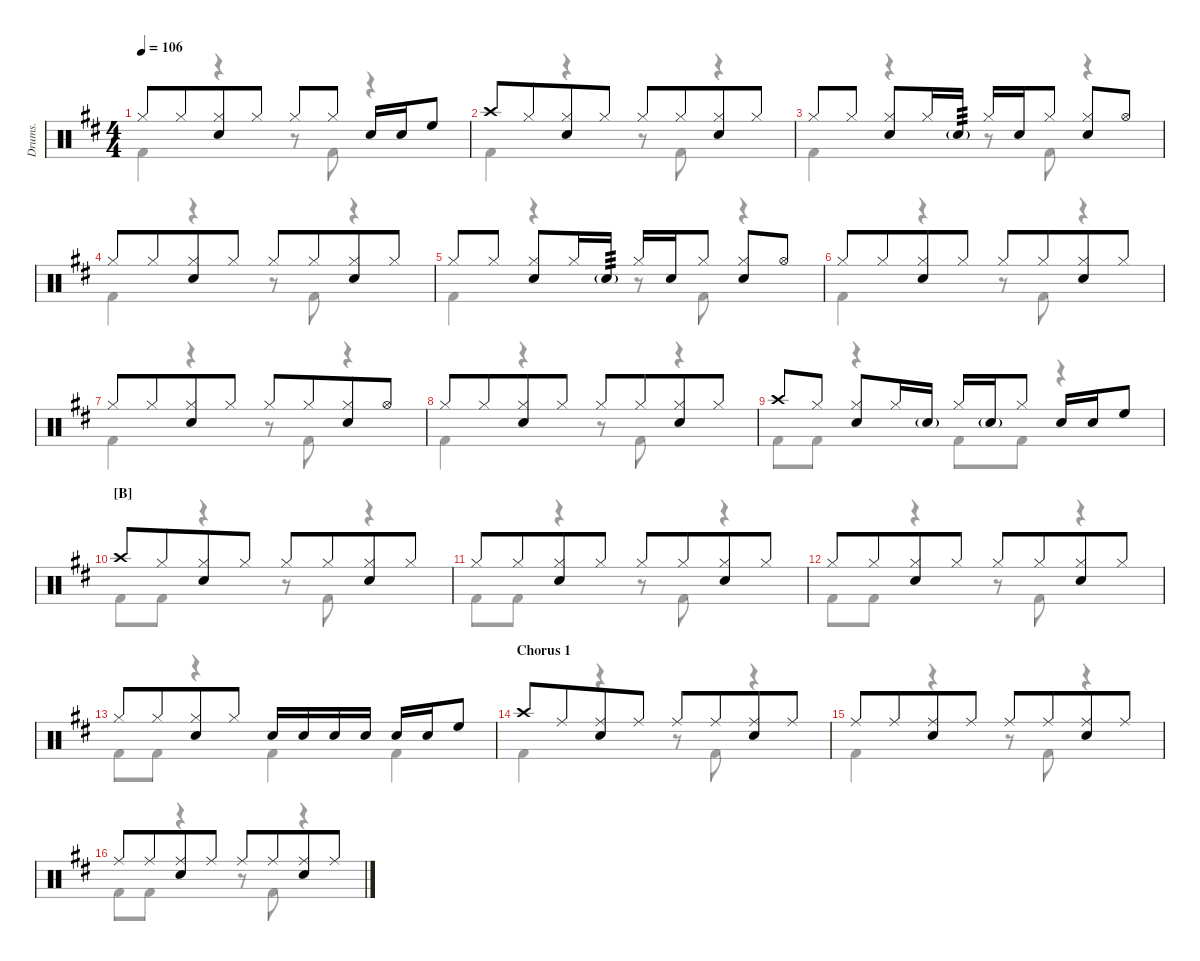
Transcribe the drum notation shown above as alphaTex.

\defaultSystemsLayout 4
\hideDynamics
\track ("Drumkit" "Drums.") {defaultSystemsLayout 4 instrument percussion}
\staff {score}
\articulation defaults
\voice
\ts (4 4)
\tempo 106
\clef neutral
\ks d "Hi-Hat (closed)"{acc forcenatural}.8{dy mf} "Hi-Hat (closed)"{acc forcenatural}.8{beam merge}
("Hi-Hat (closed)"{acc forcenatural} "Snare (hit) 2"{acc forcenatural}).8 "Hi-Hat (closed)"{acc forcenatural}.8 "Hi-Hat (closed)"{acc forcenatural}.8 "Hi-Hat (closed)"{acc forcenatural}.8 "Snare (hit) 2"{acc forcenatural}.16 "Snare (hit) 2"{acc forcenatural}.16 "High Floor Tom (hit)"{acc forcenatural}.8 |
"Crash high (hit)"{acc forcenatural}.8 "Hi-Hat (closed)"{acc forcenatural}.8{beam merge} ("Hi-Hat (closed)"{acc forcenatural} "Snare (hit) 2"{acc forcenatural}).8 "Hi-Hat (closed)"{acc forcenatural}.8 "Hi-Hat (closed)"{acc forcenatural}.8 "Hi-Hat (closed)"{acc forcenatural}.8{beam merge} ("Hi-Hat (closed)"{acc forcenatural} "Snare (hit) 2"{acc forcenatural}).8 "Hi-Hat (closed)"{acc forcenatural}.8 |
"Hi-Hat (closed)"{acc forcenatural}.8 "Hi-Hat (closed)"{acc forcenatural}.8 ("Hi-Hat (closed)"{acc forcenatural} "Snare (hit) 2"{acc forcenatural}).8 "Hi-Hat (closed)"{acc forcenatural}.16 "Snare (hit) 2"{g acc forcenatural}.16{tp 3} "Hi-Hat (closed)"{acc forcenatural}.16 "Snare (hit) 2"{acc forcenatural}.16 "Hi-Hat (closed)"{acc forcenatural}.8{beam split} ("Hi-Hat (closed)"{acc forcenatural} "Snare (hit) 2"{acc forcenatural}).8 "Hi-Hat (open)"{acc forcenatural}.8 |
"Hi-Hat (closed)"{acc forcenatural}.8 "Hi-Hat (closed)"{acc forcenatural}.8{beam merge} ("Hi-Hat (closed)"{acc forcenatural} "Snare (hit) 2"{acc forcenatural}).8 "Hi-Hat (closed)"{acc forcenatural}.8 "Hi-Hat (closed)"{acc forcenatural}.8 "Hi-Hat (closed)"{acc forcenatural}.8{beam merge} ("Hi-Hat (closed)"{acc forcenatural} "Snare (hit) 2"{acc forcenatural}).8 "Hi-Hat (closed)"{acc forcenatural}.8 |
"Hi-Hat (closed)"{acc forcenatural}.8 "Hi-Hat (closed)"{acc forcenatural}.8 ("Hi-Hat (closed)"{acc forcenatural} "Snare (hit) 2"{acc forcenatural}).8 "Hi-Hat (closed)"{acc forcenatural}.16 "Snare (hit) 2"{g acc forcenatural}.16{tp 3} "Hi-Hat (closed)"{acc forcenatural}.16 "Snare (hit) 2"{acc forcenatural}.16 "Hi-Hat (closed)"{acc forcenatural}.8{beam split} ("Hi-Hat (closed)"{acc forcenatural} "Snare (hit) 2"{acc forcenatural}).8 "Hi-Hat (open)"{acc forcenatural}.8 |
"Hi-Hat (closed)"{acc forcenatural}.8 "Hi-Hat (closed)"{acc forcenatural}.8{beam merge} ("Hi-Hat (closed)"{acc forcenatural} "Snare (hit) 2"{acc forcenatural}).8 "Hi-Hat (closed)"{acc forcenatural}.8 "Hi-Hat (closed)"{acc forcenatural}.8 "Hi-Hat (closed)"{acc forcenatural}.8{beam merge} ("Hi-Hat (closed)"{acc forcenatural} "Snare (hit) 2"{acc forcenatural}).8 "Hi-Hat (closed)"{acc forcenatural}.8 |
"Hi-Hat (closed)"{acc forcenatural}.8 "Hi-Hat (closed)"{acc forcenatural}.8{beam merge} ("Hi-Hat (closed)"{acc forcenatural} "Snare (hit) 2"{acc forcenatural}).8 "Hi-Hat (closed)"{acc forcenatural}.8 "Hi-Hat (closed)"{acc forcenatural}.8 "Hi-Hat (closed)"{acc forcenatural}.8{beam merge} ("Hi-Hat (closed)"{acc forcenatural} "Snare (hit) 2"{acc forcenatural}).8 "Hi-Hat (open)"{acc forcenatural}.8 |
"Hi-Hat (closed)"{acc forcenatural}.8 "Hi-Hat (closed)"{acc forcenatural}.8{beam merge} ("Hi-Hat (closed)"{acc forcenatural} "Snare (hit) 2"{acc forcenatural}).8 "Hi-Hat (closed)"{acc forcenatural}.8 "Hi-Hat (closed)"{acc forcenatural}.8 "Hi-Hat (closed)"{acc forcenatural}.8{beam merge} ("Hi-Hat (closed)"{acc forcenatural} "Snare (hit) 2"{acc forcenatural}).8 "Hi-Hat (closed)"{acc forcenatural}.8 |
"Crash high (hit)"{acc forcenatural}.8 "Hi-Hat (closed)"{acc forcenatural}.8 ("Hi-Hat (closed)"{acc forcenatural} "Snare (hit) 2"{acc forcenatural}).8 "Hi-Hat (closed)"{acc forcenatural}.16 "Snare (hit) 2"{g acc forcenatural}.16 "Hi-Hat (closed)"{acc forcenatural}.16 "Snare (hit) 2"{g acc forcenatural}.16 "Hi-Hat (closed)"{acc forcenatural}.8 "Snare (hit) 2"{acc forcenatural}.16 "Snare (hit) 2"{acc forcenatural}.16 "High Floor Tom (hit)"{acc forcenatural}.8 |
\section ("B" "")
"Crash high (hit)"{acc forcenatural}.8 "Hi-Hat (closed)"{acc forcenatural}.8{beam merge} ("Hi-Hat (closed)"{acc forcenatural} "Snare (hit) 2"{acc forcenatural}).8 "Hi-Hat (closed)"{acc forcenatural}.8 "Hi-Hat (closed)"{acc forcenatural}.8 "Hi-Hat (closed)"{acc forcenatural}.8{beam merge} ("Hi-Hat (closed)"{acc forcenatural} "Snare (hit) 2"{acc forcenatural}).8 "Hi-Hat (closed)"{acc forcenatural}.8 |
"Hi-Hat (closed)"{acc forcenatural}.8 "Hi-Hat (closed)"{acc forcenatural}.8{beam merge} ("Hi-Hat (closed)"{acc forcenatural} "Snare (hit) 2"{acc forcenatural}).8 "Hi-Hat (closed)"{acc forcenatural}.8 "Hi-Hat (closed)"{acc forcenatural}.8 "Hi-Hat (closed)"{acc forcenatural}.8{beam merge} ("Hi-Hat (closed)"{acc forcenatural} "Snare (hit) 2"{acc forcenatural}).8 "Hi-Hat (closed)"{acc forcenatural}.8 |
"Hi-Hat (closed)"{acc forcenatural}.8 "Hi-Hat (closed)"{acc forcenatural}.8{beam merge} ("Hi-Hat (closed)"{acc forcenatural} "Snare (hit) 2"{acc forcenatural}).8 "Hi-Hat (closed)"{acc forcenatural}.8 "Hi-Hat (closed)"{acc forcenatural}.8 "Hi-Hat (closed)"{acc forcenatural}.8{beam merge} ("Hi-Hat (closed)"{acc forcenatural} "Snare (hit) 2"{acc forcenatural}).8 "Hi-Hat (closed)"{acc forcenatural}.8 |
"Hi-Hat (closed)"{acc forcenatural}.8 "Hi-Hat (closed)"{acc forcenatural}.8{beam merge} ("Hi-Hat (closed)"{acc forcenatural} "Snare (hit) 2"{acc forcenatural}).8 "Hi-Hat (closed)"{acc forcenatural}.8 "Snare (hit) 2"{acc forcenatural}.16 "Snare (hit) 2"{acc forcenatural}.16 "Snare (hit) 2"{acc forcenatural}.16 "Snare (hit) 2"{acc forcenatural}.16 "Snare (hit) 2"{acc forcenatural}.16 "Snare (hit) 2"{acc forcenatural}.16 "High Floor Tom (hit)"{acc forcenatural}.8 |
\section ("" "Chorus 1")
"Crash high (hit)"{acc forcenatural}.8{beam merge} "Ride (middle)"{acc forcenatural}.8{beam merge} ("Ride (middle)"{acc forcenatural} "Snare (hit) 2"{acc forcenatural}).8 "Ride (middle)"{acc forcenatural}.8 "Ride (middle)"{acc forcenatural}.8{beam merge} "Ride (middle)"{acc forcenatural}.8{beam merge} ("Ride (middle)"{acc forcenatural} "Snare (hit) 2"{acc forcenatural}).8 "Ride (middle)"{acc forcenatural}.8 |
"Ride (middle)"{acc forcenatural}.8{beam merge} "Ride (middle)"{acc forcenatural}.8{beam merge} ("Ride (middle)"{acc forcenatural} "Snare (hit) 2"{acc forcenatural}).8 "Ride (middle)"{acc forcenatural}.8 "Ride (middle)"{acc forcenatural}.8{beam merge} "Ride (middle)"{acc forcenatural}.8{beam merge} ("Ride (middle)"{acc forcenatural} "Snare (hit) 2"{acc forcenatural}).8 "Ride (middle)"{acc forcenatural}.8 |
"Ride (middle)"{acc forcenatural}.8{beam merge} "Ride (middle)"{acc forcenatural}.8{beam merge} ("Ride (middle)"{acc forcenatural} "Snare (hit) 2"{acc forcenatural}).8 "Ride (middle)"{acc forcenatural}.8 "Ride (middle)"{acc forcenatural}.8{beam merge} "Ride (middle)"{acc forcenatural}.8{beam merge} ("Ride (middle)"{acc forcenatural} "Snare (hit) 2"{acc forcenatural}).8 "Ride (middle)"{acc forcenatural}.8
\voice
\clef neutral
\ottava regular
\simile none
\ks d "Kick (hit) 2"{acc forcenatural}.4{dy mf}
r.4 r.8 "Kick (hit) 2"{acc forcenatural}.8 r.4 |
"Kick (hit) 2"{acc forcenatural}.4 r.4 r.8 "Kick (hit) 2"{acc forcenatural}.8 r.4 |
"Kick (hit) 2"{acc forcenatural}.4 r.4 r.8 "Kick (hit) 2"{acc forcenatural}.8 r.4 |
"Kick (hit) 2"{acc forcenatural}.4 r.4 r.8 "Kick (hit) 2"{acc forcenatural}.8 r.4 |
"Kick (hit) 2"{acc forcenatural}.4 r.4 r.8 "Kick (hit) 2"{acc forcenatural}.8 r.4 |
"Kick (hit) 2"{acc forcenatural}.4 r.4 r.8 "Kick (hit) 2"{acc forcenatural}.8 r.4 |
"Kick (hit) 2"{acc forcenatural}.4 r.4 r.8 "Kick (hit) 2"{acc forcenatural}.8 r.4 |
"Kick (hit) 2"{acc forcenatural}.4 r.4 r.8 "Kick (hit) 2"{acc forcenatural}.8 r.4 |
"Kick (hit) 2"{acc forcenatural}.8 "Kick (hit) 2"{acc forcenatural}.8 r.4 "Kick (hit) 2"{acc forcenatural}.8 "Kick (hit) 2"{acc forcenatural}.8 r.4 |
"Kick (hit) 2"{acc forcenatural}.8 "Kick (hit) 2"{acc forcenatural}.8 r.4 r.8 "Kick (hit) 2"{acc forcenatural}.8 r.4 |
"Kick (hit) 2"{acc forcenatural}.8 "Kick (hit) 2"{acc forcenatural}.8 r.4 r.8 "Kick (hit) 2"{acc forcenatural}.8 r.4 |
"Kick (hit) 2"{acc forcenatural}.8 "Kick (hit) 2"{acc forcenatural}.8 r.4 r.8 "Kick (hit) 2"{acc forcenatural}.8 r.4 |
"Kick (hit) 2"{acc forcenatural}.8 "Kick (hit) 2"{acc forcenatural}.8 r.4 "Kick (hit) 2"{acc forcenatural}.4 "Kick (hit) 2"{acc forcenatural}.4 |
"Kick (hit) 2"{acc forcenatural}.4 r.4 r.8 "Kick (hit) 2"{acc forcenatural}.8 r.4 |
"Kick (hit) 2"{acc forcenatural}.4 r.4 r.8 "Kick (hit) 2"{acc forcenatural}.8 r.4 |
"Kick (hit) 2"{acc forcenatural}.8 "Kick (hit) 2"{acc forcenatural}.8 r.4 r.8 "Kick (hit) 2"{acc forcenatural}.8 r.4
